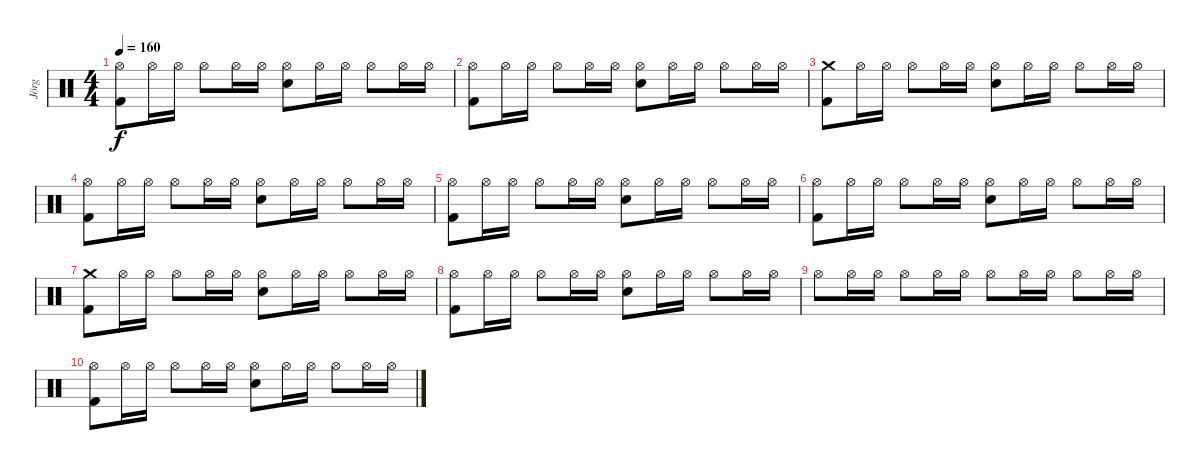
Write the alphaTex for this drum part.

\track ("Jörg" "Jörg") {instrument percussion}
\staff {score}
\articulation defaults
\ts (4 4)
\tempo 160
\clef neutral
\ks c
("Kick (hit) 2" "Hi-Hat (open)").8{dy f} "Hi-Hat (open)".16 "Hi-Hat (open)".16 "Hi-Hat (open)".8 "Hi-Hat (open)".16 "Hi-Hat (open)".16 ("Snare (hit) 2" "Hi-Hat (open)").8 "Hi-Hat (open)".16 "Hi-Hat (open)".16 "Hi-Hat (open)".8 "Hi-Hat (open)".16 "Hi-Hat (open)".16 |
("Kick (hit) 2" "Hi-Hat (open)").8{volume 15} "Hi-Hat (open)".16 "Hi-Hat (open)".16 "Hi-Hat (open)".8 "Hi-Hat (open)".16 "Hi-Hat (open)".16 ("Snare (hit) 2" "Hi-Hat (open)").8 "Hi-Hat (open)".16 "Hi-Hat (open)".16 "Hi-Hat (open)".8 "Hi-Hat (open)".16 "Hi-Hat (open)".16 |
("Kick (hit) 2" "Crash medium (hit)").8{volume 14} "Hi-Hat (open)".16 "Hi-Hat (open)".16 "Hi-Hat (open)".8 "Hi-Hat (open)".16 "Hi-Hat (open)".16 ("Snare (hit) 2" "Hi-Hat (open)").8 "Hi-Hat (open)".16 "Hi-Hat (open)".16 "Hi-Hat (open)".8 "Hi-Hat (open)".16 "Hi-Hat (open)".16 |
("Kick (hit) 2" "Hi-Hat (open)").8{volume 12} "Hi-Hat (open)".16 "Hi-Hat (open)".16 "Hi-Hat (open)".8 "Hi-Hat (open)".16 "Hi-Hat (open)".16 ("Snare (hit) 2" "Hi-Hat (open)").8 "Hi-Hat (open)".16 "Hi-Hat (open)".16 "Hi-Hat (open)".8 "Hi-Hat (open)".16 "Hi-Hat (open)".16 |
("Kick (hit) 2" "Hi-Hat (open)").8{volume 10} "Hi-Hat (open)".16 "Hi-Hat (open)".16 "Hi-Hat (open)".8 "Hi-Hat (open)".16 "Hi-Hat (open)".16 ("Snare (hit) 2" "Hi-Hat (open)").8 "Hi-Hat (open)".16 "Hi-Hat (open)".16 "Hi-Hat (open)".8 "Hi-Hat (open)".16 "Hi-Hat (open)".16 |
("Kick (hit) 2" "Hi-Hat (open)").8{volume 8} "Hi-Hat (open)".16 "Hi-Hat (open)".16 "Hi-Hat (open)".8 "Hi-Hat (open)".16 "Hi-Hat (open)".16 ("Snare (hit) 2" "Hi-Hat (open)").8 "Hi-Hat (open)".16 "Hi-Hat (open)".16 "Hi-Hat (open)".8 "Hi-Hat (open)".16 "Hi-Hat (open)".16 |
("Kick (hit) 2" "Crash medium (hit)").8{volume 6} "Hi-Hat (open)".16 "Hi-Hat (open)".16 "Hi-Hat (open)".8 "Hi-Hat (open)".16 "Hi-Hat (open)".16 ("Snare (hit) 2" "Hi-Hat (open)").8 "Hi-Hat (open)".16 "Hi-Hat (open)".16 "Hi-Hat (open)".8 "Hi-Hat (open)".16 "Hi-Hat (open)".16 |
("Kick (hit) 2" "Hi-Hat (open)").8{volume 4} "Hi-Hat (open)".16 "Hi-Hat (open)".16 "Hi-Hat (open)".8 "Hi-Hat (open)".16 "Hi-Hat (open)".16 ("Snare (hit) 2" "Hi-Hat (open)").8 "Hi-Hat (open)".16 "Hi-Hat (open)".16 "Hi-Hat (open)".8 "Hi-Hat (open)".16 "Hi-Hat (open)".16 |
"Hi-Hat (open)".8{volume 2} "Hi-Hat (open)".16 "Hi-Hat (open)".16 "Hi-Hat (open)".8 "Hi-Hat (open)".16 "Hi-Hat (open)".16 "Hi-Hat (open)".8 "Hi-Hat (open)".16 "Hi-Hat (open)".16 "Hi-Hat (open)".8 "Hi-Hat (open)".16 "Hi-Hat (open)".16 |
("Kick (hit) 2" "Hi-Hat (open)").8{volume 0} "Hi-Hat (open)".16 "Hi-Hat (open)".16 "Hi-Hat (open)".8 "Hi-Hat (open)".16 "Hi-Hat (open)".16 ("Electric Snare (hit)" "Hi-Hat (open)").8 "Hi-Hat (open)".16 "Hi-Hat (open)".16 "Hi-Hat (open)".8 "Hi-Hat (open)".16 "Hi-Hat (open)".16
